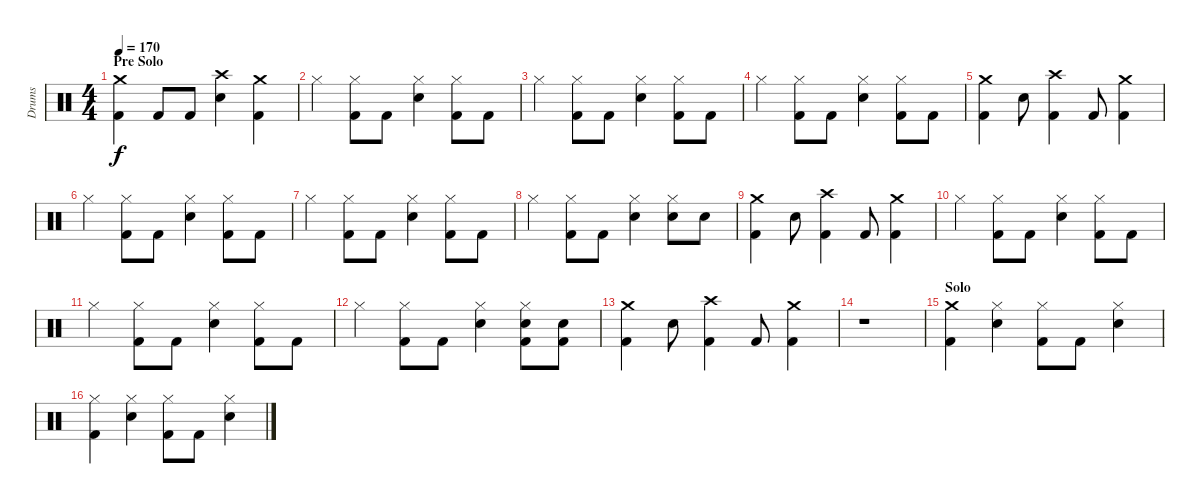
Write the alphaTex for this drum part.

\track ("Drums" "Drums") {instrument percussion}
\staff {score}
\articulation defaults
\ts (4 4)
\section ("" "Pre Solo")
\tempo 170
\clef neutral
\ks c
("Crash medium (hit)" "Kick (hit) 2").4{dy f} "Kick (hit) 2".8 "Kick (hit) 2".8 ("Crash high (hit)" "Electric Snare (hit)").4 ("Crash medium (hit)" "Kick (hit) 2").4 |
"Hi-Hat (closed)".4 ("Hi-Hat (closed)" "Kick (hit) 2").8 "Kick (hit) 2".8 ("Hi-Hat (closed)" "Electric Snare (hit)").4 ("Hi-Hat (closed)" "Kick (hit) 2").8 "Kick (hit) 2".8 |
"Hi-Hat (closed)".4 ("Hi-Hat (closed)" "Kick (hit) 2").8 "Kick (hit) 2".8 ("Hi-Hat (closed)" "Electric Snare (hit)").4 ("Hi-Hat (closed)" "Kick (hit) 2").8 "Kick (hit) 2".8 |
"Hi-Hat (closed)".4 ("Hi-Hat (closed)" "Kick (hit) 2").8 "Kick (hit) 2".8 ("Hi-Hat (closed)" "Electric Snare (hit)").4 ("Hi-Hat (closed)" "Kick (hit) 2").8 "Kick (hit) 2".8 |
("Crash medium (hit)" "Kick (hit) 2").4 "Electric Snare (hit)".8 ("Crash high (hit)" "Kick (hit) 2").4 "Kick (hit) 2".8 ("Crash medium (hit)" "Kick (hit) 2").4 |
"Hi-Hat (closed)".4 ("Hi-Hat (closed)" "Kick (hit) 2").8 "Kick (hit) 2".8 ("Hi-Hat (closed)" "Electric Snare (hit)").4 ("Hi-Hat (closed)" "Kick (hit) 2").8 "Kick (hit) 2".8 |
"Hi-Hat (closed)".4 ("Hi-Hat (closed)" "Kick (hit) 2").8 "Kick (hit) 2".8 ("Hi-Hat (closed)" "Electric Snare (hit)").4 ("Hi-Hat (closed)" "Kick (hit) 2").8 "Kick (hit) 2".8 |
"Hi-Hat (closed)".4 ("Hi-Hat (closed)" "Kick (hit) 2").8 "Kick (hit) 2".8 ("Hi-Hat (closed)" "Electric Snare (hit)").4 ("Hi-Hat (closed)" "Electric Snare (hit)").8 "Electric Snare (hit)".8 |
("Crash medium (hit)" "Kick (hit) 2").4 "Electric Snare (hit)".8 ("Crash high (hit)" "Kick (hit) 2").4 "Kick (hit) 2".8 ("Crash medium (hit)" "Kick (hit) 2").4 |
"Hi-Hat (closed)".4 ("Hi-Hat (closed)" "Kick (hit) 2").8 "Kick (hit) 2".8 ("Hi-Hat (closed)" "Electric Snare (hit)").4 ("Hi-Hat (closed)" "Kick (hit) 2").8 "Kick (hit) 2".8 |
"Hi-Hat (closed)".4 ("Hi-Hat (closed)" "Kick (hit) 2").8 "Kick (hit) 2".8 ("Hi-Hat (closed)" "Electric Snare (hit)").4 ("Hi-Hat (closed)" "Kick (hit) 2").8 "Kick (hit) 2".8 |
"Hi-Hat (closed)".4 ("Hi-Hat (closed)" "Kick (hit) 2").8 "Kick (hit) 2".8 ("Hi-Hat (closed)" "Electric Snare (hit)").4 ("Hi-Hat (closed)" "Electric Snare (hit)" "Kick (hit) 2").8 ("Electric Snare (hit)" "Kick (hit) 2").8 |
("Crash medium (hit)" "Kick (hit) 2").4 "Electric Snare (hit)".8 ("Crash high (hit)" "Kick (hit) 2").4 "Kick (hit) 2".8 ("Crash medium (hit)" "Kick (hit) 2").4 |
r.1 |
\section ("" "Solo")
("Crash medium (hit)" "Kick (hit) 2").4 ("Hi-Hat (closed)" "Electric Snare (hit)").4 ("Hi-Hat (closed)" "Kick (hit) 2").8 "Kick (hit) 2".8 ("Hi-Hat (closed)" "Electric Snare (hit)").4 |
("Hi-Hat (closed)" "Kick (hit) 2").4 ("Hi-Hat (closed)" "Electric Snare (hit)").4 ("Hi-Hat (closed)" "Kick (hit) 2").8 "Kick (hit) 2".8 ("Hi-Hat (closed)" "Electric Snare (hit)").4
